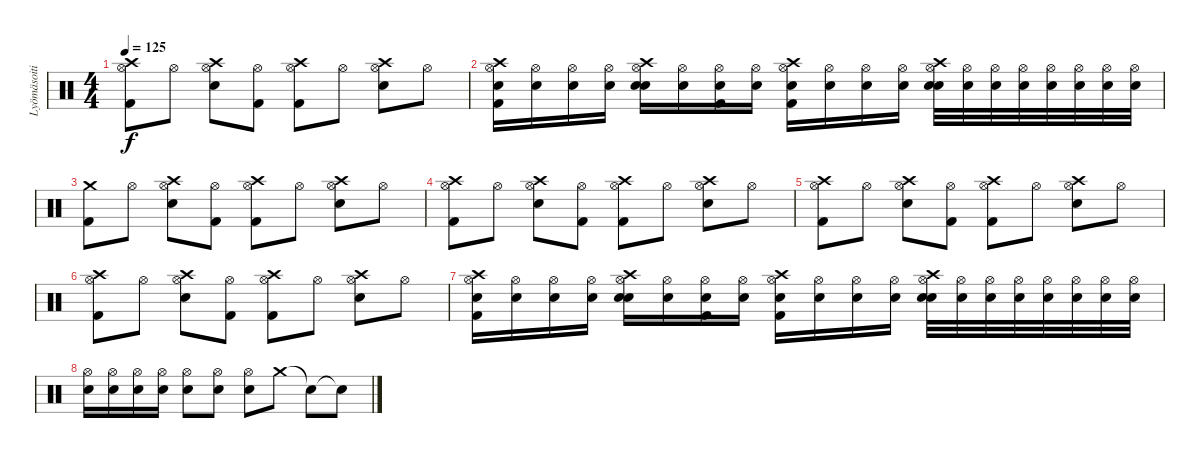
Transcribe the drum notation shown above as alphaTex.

\track ("Lyömäsoitin" "Lyömäsoiti") {instrument percussion}
\staff {score}
\articulation defaults
\ts (4 4)
\tempo 125
\clef neutral
\ks c
("Crash high (hit)" "Hi-Hat (open)" "Kick (hit) 2").8{dy f} "Hi-Hat (open)".8 ("Crash high (hit)" "Hi-Hat (open)" "Snare (hit) 2").8 ("Hi-Hat (open)" "Kick (hit) 2").8 ("Crash high (hit)" "Hi-Hat (open)" "Kick (hit) 2").8 "Hi-Hat (open)".8 ("Crash high (hit)" "Hi-Hat (open)" "Snare (hit) 2").8 "Hi-Hat (open)".8 |
("Crash high (hit)" "Snare (hit) 2" "Kick (hit) 2" "Hi-Hat (open)").16 ("Snare (hit) 2" "Hi-Hat (open)").16 ("Snare (hit) 2" "Hi-Hat (open)").16 ("Snare (hit) 2" "Hi-Hat (open)").16 ("Crash high (hit)" "Snare (hit) 2" "Snare (hit) 2" "Hi-Hat (open)").16 ("Snare (hit) 2" "Hi-Hat (open)").16 ("Snare (hit) 2" "Kick (hit) 2" "Hi-Hat (open)").16 ("Snare (hit) 2" "Hi-Hat (open)").16 ("Crash high (hit)" "Snare (hit) 2" "Kick (hit) 2" "Hi-Hat (open)").16 ("Snare (hit) 2" "Hi-Hat (open)").16 ("Snare (hit) 2" "Hi-Hat (open)").16 ("Snare (hit) 2" "Hi-Hat (open)").16 ("Crash high (hit)" "Snare (hit) 2" "Snare (hit) 2" "Hi-Hat (open)").32 ("Snare (hit) 2" "Hi-Hat (open)").32 ("Snare (hit) 2" "Hi-Hat (open)").32 ("Snare (hit) 2" "Hi-Hat (open)").32 ("Snare (hit) 2" "Hi-Hat (open)").32 ("Snare (hit) 2" "Hi-Hat (open)").32 ("Snare (hit) 2" "Hi-Hat (open)").32 ("Snare (hit) 2" "Hi-Hat (open)").32 |
("Crash medium (hit)" "Kick (hit) 2").8 "Hi-Hat (open)".8 ("Crash high (hit)" "Hi-Hat (open)" "Snare (hit) 2").8 ("Hi-Hat (open)" "Kick (hit) 2").8 ("Crash high (hit)" "Hi-Hat (open)" "Kick (hit) 2").8 "Hi-Hat (open)".8 ("Crash high (hit)" "Hi-Hat (open)" "Snare (hit) 2").8 "Hi-Hat (open)".8 |
("Crash high (hit)" "Hi-Hat (open)" "Kick (hit) 2").8 "Hi-Hat (open)".8 ("Crash high (hit)" "Hi-Hat (open)" "Snare (hit) 2").8 ("Hi-Hat (open)" "Kick (hit) 2").8 ("Crash high (hit)" "Hi-Hat (open)" "Kick (hit) 2").8 "Hi-Hat (open)".8 ("Crash high (hit)" "Hi-Hat (open)" "Snare (hit) 2").8 "Hi-Hat (open)".8 |
("Crash high (hit)" "Hi-Hat (open)" "Kick (hit) 2").8 "Hi-Hat (open)".8 ("Crash high (hit)" "Hi-Hat (open)" "Snare (hit) 2").8 ("Hi-Hat (open)" "Kick (hit) 2").8 ("Crash high (hit)" "Hi-Hat (open)" "Kick (hit) 2").8 "Hi-Hat (open)".8 ("Crash high (hit)" "Hi-Hat (open)" "Snare (hit) 2").8 "Hi-Hat (open)".8 |
("Crash high (hit)" "Hi-Hat (open)" "Kick (hit) 2").8 "Hi-Hat (open)".8 ("Crash high (hit)" "Hi-Hat (open)" "Snare (hit) 2").8 ("Hi-Hat (open)" "Kick (hit) 2").8 ("Crash high (hit)" "Hi-Hat (open)" "Kick (hit) 2").8 "Hi-Hat (open)".8 ("Crash high (hit)" "Hi-Hat (open)" "Snare (hit) 2").8 "Hi-Hat (open)".8 |
("Crash high (hit)" "Snare (hit) 2" "Kick (hit) 2" "Hi-Hat (open)").16 ("Snare (hit) 2" "Hi-Hat (open)").16 ("Snare (hit) 2" "Hi-Hat (open)").16 ("Snare (hit) 2" "Hi-Hat (open)").16 ("Crash high (hit)" "Snare (hit) 2" "Snare (hit) 2" "Hi-Hat (open)").16 ("Snare (hit) 2" "Hi-Hat (open)").16 ("Snare (hit) 2" "Kick (hit) 2" "Hi-Hat (open)").16 ("Snare (hit) 2" "Hi-Hat (open)").16 ("Crash high (hit)" "Snare (hit) 2" "Kick (hit) 2" "Hi-Hat (open)").16 ("Snare (hit) 2" "Hi-Hat (open)").16 ("Snare (hit) 2" "Hi-Hat (open)").16 ("Snare (hit) 2" "Hi-Hat (open)").16 ("Crash high (hit)" "Snare (hit) 2" "Snare (hit) 2" "Hi-Hat (open)").32 ("Snare (hit) 2" "Hi-Hat (open)").32 ("Snare (hit) 2" "Hi-Hat (open)").32 ("Snare (hit) 2" "Hi-Hat (open)").32 ("Snare (hit) 2" "Hi-Hat (open)").32 ("Snare (hit) 2" "Hi-Hat (open)").32 ("Snare (hit) 2" "Hi-Hat (open)").32 ("Snare (hit) 2" "Hi-Hat (open)").32 |
("Hi-Hat (open)" "Snare (hit) 2").16 ("Hi-Hat (open)" "Snare (hit) 2").16 ("Hi-Hat (open)" "Snare (hit) 2").16 ("Hi-Hat (open)" "Snare (hit) 2").16 ("Hi-Hat (open)" "Snare (hit) 2").8 ("Hi-Hat (open)" "Snare (hit) 2").8 ("Hi-Hat (open)" "Snare (hit) 2").8 "Crash medium (hit)".8 "Snare (hit)"{t}.8 "Snare (hit)"{t}.8
